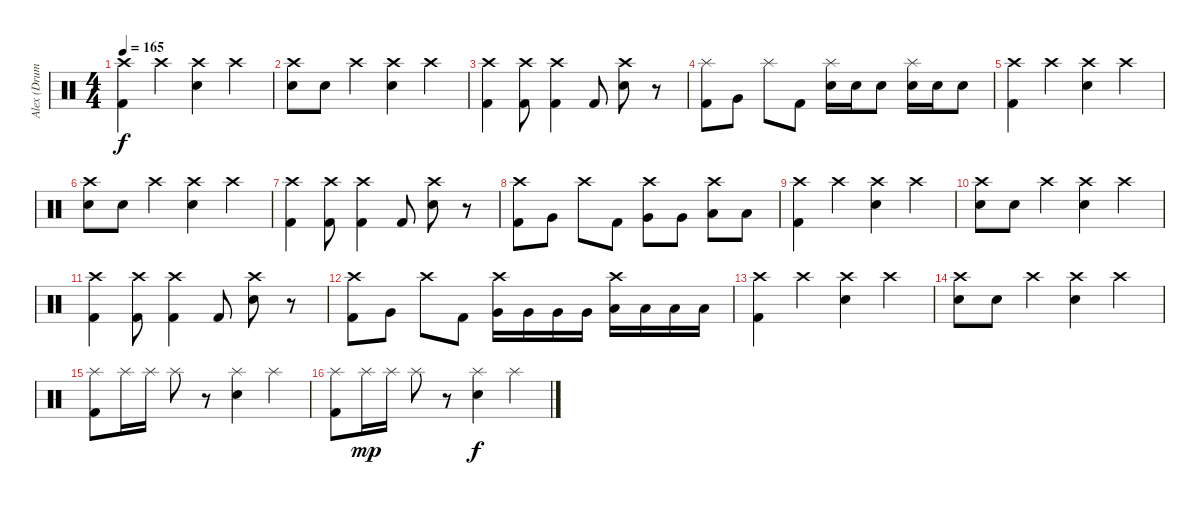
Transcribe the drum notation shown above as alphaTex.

\track ("Alex (Drums)" "Alex (Drum") {instrument percussion}
\staff {score}
\articulation defaults
\ts (4 4)
\tempo 165
\clef neutral
\ks c
("Crash high (hit)" "Kick (hit) 2").4{dy f} "Crash high (hit)".4 ("Crash high (hit)" "Snare (hit) 2").4 "Crash high (hit)".4 |
("Crash high (hit)" "Snare (hit) 2").8 "Snare (hit) 2".8 "Crash high (hit)".4 ("Crash high (hit)" "Snare (hit) 2").4 "Crash high (hit)".4 |
("Crash high (hit)" "Kick (hit) 2").4 ("Crash high (hit)" "Kick (hit) 2").8 ("Crash high (hit)" "Kick (hit) 2").4 "Kick (hit) 2".8 ("Crash high (hit)" "Snare (hit) 2").8 r.8 |
("Splash (hit)" "Kick (hit) 2").8 "Very Low Tom (hit)".8 "Splash (hit)".8 "Kick (hit) 2".8 ("Splash (hit)" "Snare (hit) 2").16 "Snare (hit) 2".16 "Snare (hit) 2".8 ("Splash (hit)" "Snare (hit) 2").16 "Snare (hit) 2".16 "Snare (hit) 2".8 |
("Crash high (hit)" "Kick (hit) 2").4 "Crash high (hit)".4 ("Crash high (hit)" "Snare (hit) 2").4 "Crash high (hit)".4 |
("Crash high (hit)" "Snare (hit) 2").8 "Snare (hit) 2".8 "Crash high (hit)".4 ("Crash high (hit)" "Snare (hit) 2").4 "Crash high (hit)".4 |
("Crash high (hit)" "Kick (hit) 2").4 ("Crash high (hit)" "Kick (hit) 2").8 ("Crash high (hit)" "Kick (hit) 2").4 "Kick (hit) 2".8 ("Crash high (hit)" "Snare (hit) 2").8 r.8 |
("Crash high (hit)" "Kick (hit) 2").8 "Very Low Tom (hit)".8 "Crash high (hit)".8 "Kick (hit) 2".8 ("Crash high (hit)" "Very Low Tom (hit)").8 "Very Low Tom (hit)".8 ("Crash high (hit)" "Low Floor Tom (hit)").8 "Low Floor Tom (hit)".8 |
("Crash high (hit)" "Kick (hit) 2").4 "Crash high (hit)".4 ("Crash high (hit)" "Snare (hit) 2").4 "Crash high (hit)".4 |
("Crash high (hit)" "Snare (hit) 2").8 "Snare (hit) 2".8 "Crash high (hit)".4 ("Crash high (hit)" "Snare (hit) 2").4 "Crash high (hit)".4 |
("Crash high (hit)" "Kick (hit) 2").4 ("Crash high (hit)" "Kick (hit) 2").8 ("Crash high (hit)" "Kick (hit) 2").4 "Kick (hit) 2".8 ("Crash high (hit)" "Snare (hit) 2").8 r.8 |
("Crash high (hit)" "Kick (hit) 2").8 "Very Low Tom (hit)".8 "Crash high (hit)".8 "Kick (hit) 2".8 ("Crash high (hit)" "Very Low Tom (hit)").16 "Very Low Tom (hit)".16 "Very Low Tom (hit)".16 "Very Low Tom (hit)".16 ("Crash high (hit)" "Low Floor Tom (hit)").16 "Low Floor Tom (hit)".16 "Low Floor Tom (hit)".16 "Low Floor Tom (hit)".16 |
("Crash high (hit)" "Kick (hit) 2").4 "Crash high (hit)".4 ("Crash high (hit)" "Snare (hit) 2").4 "Crash high (hit)".4 |
("Crash high (hit)" "Snare (hit) 2").8 "Snare (hit) 2".8 "Crash high (hit)".4 ("Crash high (hit)" "Snare (hit) 2").4 "Crash high (hit)".4 |
("Splash (hit)" "Kick (hit) 2").8 "Splash (hit)".16 "Splash (hit)".16 "Splash (hit)".8 r.8 ("Splash (hit)" "Snare (hit) 2").4 "Splash (hit)".4 |
("Splash (hit)" "Kick (hit) 2").8 "Splash (hit)".16{dy mp} "Splash (hit)".16 "Splash (hit)".8 r.8 ("Splash (hit)" "Snare (hit) 2").4{dy f} "Splash (hit)".4
